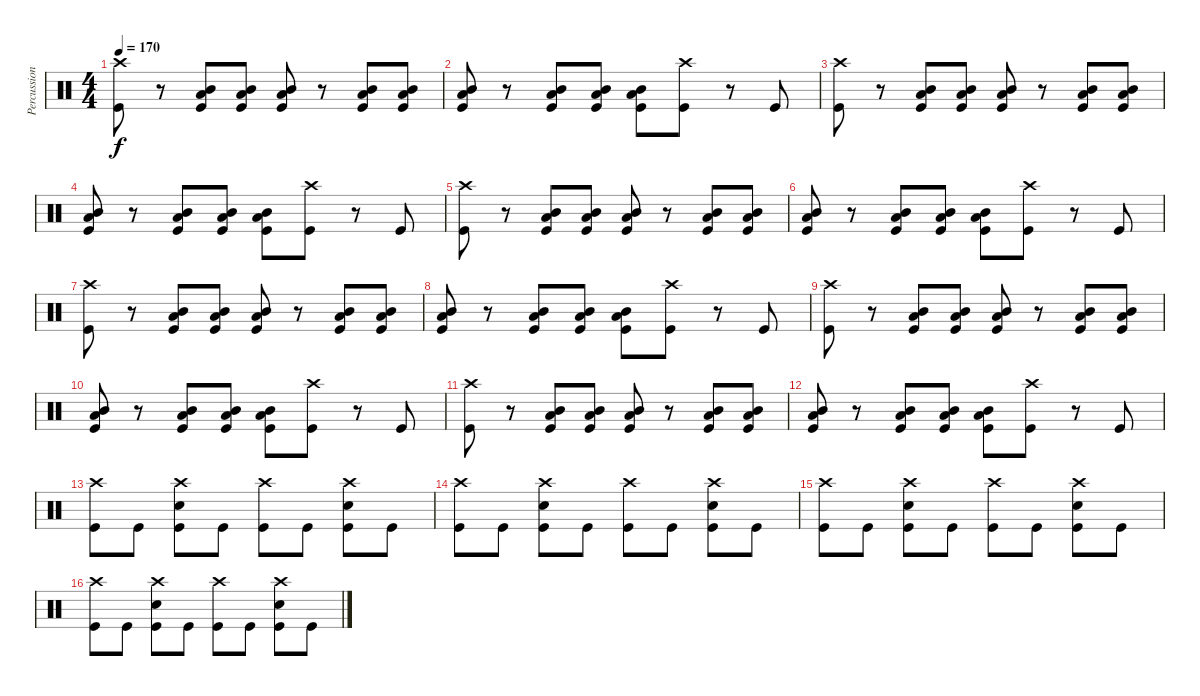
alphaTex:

\track ("Percussion" "Percussion") {instrument percussion}
\staff {score}
\articulation defaults
\ts (4 4)
\tempo 170
\clef neutral
\ks c
("Crash high (hit)" "Kick (hit)").8{dy f} r.8 ("Low Tom (hit)" "Mid Tom (hit)" "Kick (hit)").8 ("Low Tom (hit)" "Mid Tom (hit)" "Kick (hit)").8 ("Low Tom (hit)" "Mid Tom (hit)" "Kick (hit)").8 r.8 ("Low Tom (hit)" "Mid Tom (hit)" "Kick (hit)").8 ("Low Tom (hit)" "Mid Tom (hit)" "Kick (hit)").8 |
("Low Tom (hit)" "Mid Tom (hit)" "Kick (hit)").8 r.8 ("Low Tom (hit)" "Mid Tom (hit)" "Kick (hit)").8 ("Low Tom (hit)" "Mid Tom (hit)" "Kick (hit)").8 ("Low Tom (hit)" "Mid Tom (hit)" "Kick (hit)").8 ("Crash high (hit)" "Kick (hit)").8 r.8 "Kick (hit)".8 |
("Crash high (hit)" "Kick (hit)").8 r.8 ("Low Tom (hit)" "Mid Tom (hit)" "Kick (hit)").8 ("Low Tom (hit)" "Mid Tom (hit)" "Kick (hit)").8 ("Low Tom (hit)" "Mid Tom (hit)" "Kick (hit)").8 r.8 ("Low Tom (hit)" "Mid Tom (hit)" "Kick (hit)").8 ("Low Tom (hit)" "Mid Tom (hit)" "Kick (hit)").8 |
("Low Tom (hit)" "Mid Tom (hit)" "Kick (hit)").8 r.8 ("Low Tom (hit)" "Mid Tom (hit)" "Kick (hit)").8 ("Low Tom (hit)" "Mid Tom (hit)" "Kick (hit)").8 ("Low Tom (hit)" "Mid Tom (hit)" "Kick (hit)").8 ("Crash high (hit)" "Kick (hit)").8 r.8 "Kick (hit)".8 |
("Crash high (hit)" "Kick (hit)").8 r.8 ("Low Tom (hit)" "Mid Tom (hit)" "Kick (hit)").8 ("Low Tom (hit)" "Mid Tom (hit)" "Kick (hit)").8 ("Low Tom (hit)" "Mid Tom (hit)" "Kick (hit)").8 r.8 ("Low Tom (hit)" "Mid Tom (hit)" "Kick (hit)").8 ("Low Tom (hit)" "Mid Tom (hit)" "Kick (hit)").8 |
("Low Tom (hit)" "Mid Tom (hit)" "Kick (hit)").8 r.8 ("Low Tom (hit)" "Mid Tom (hit)" "Kick (hit)").8 ("Low Tom (hit)" "Mid Tom (hit)" "Kick (hit)").8 ("Low Tom (hit)" "Mid Tom (hit)" "Kick (hit)").8 ("Crash high (hit)" "Kick (hit)").8 r.8 "Kick (hit)".8 |
("Crash high (hit)" "Kick (hit)").8 r.8 ("Low Tom (hit)" "Mid Tom (hit)" "Kick (hit)").8 ("Low Tom (hit)" "Mid Tom (hit)" "Kick (hit)").8 ("Low Tom (hit)" "Mid Tom (hit)" "Kick (hit)").8 r.8 ("Low Tom (hit)" "Mid Tom (hit)" "Kick (hit)").8 ("Low Tom (hit)" "Mid Tom (hit)" "Kick (hit)").8 |
("Low Tom (hit)" "Mid Tom (hit)" "Kick (hit)").8 r.8 ("Low Tom (hit)" "Mid Tom (hit)" "Kick (hit)").8 ("Low Tom (hit)" "Mid Tom (hit)" "Kick (hit)").8 ("Low Tom (hit)" "Mid Tom (hit)" "Kick (hit)").8 ("Crash high (hit)" "Kick (hit)").8 r.8 "Kick (hit)".8 |
("Crash high (hit)" "Kick (hit)").8 r.8 ("Low Tom (hit)" "Mid Tom (hit)" "Kick (hit)").8 ("Low Tom (hit)" "Mid Tom (hit)" "Kick (hit)").8 ("Low Tom (hit)" "Mid Tom (hit)" "Kick (hit)").8 r.8 ("Low Tom (hit)" "Mid Tom (hit)" "Kick (hit)").8 ("Low Tom (hit)" "Mid Tom (hit)" "Kick (hit)").8 |
("Low Tom (hit)" "Mid Tom (hit)" "Kick (hit)").8 r.8 ("Low Tom (hit)" "Mid Tom (hit)" "Kick (hit)").8 ("Low Tom (hit)" "Mid Tom (hit)" "Kick (hit)").8 ("Low Tom (hit)" "Mid Tom (hit)" "Kick (hit)").8 ("Crash high (hit)" "Kick (hit)").8 r.8 "Kick (hit)".8 |
("Crash high (hit)" "Kick (hit)").8 r.8 ("Low Tom (hit)" "Mid Tom (hit)" "Kick (hit)").8 ("Low Tom (hit)" "Mid Tom (hit)" "Kick (hit)").8 ("Low Tom (hit)" "Mid Tom (hit)" "Kick (hit)").8 r.8 ("Low Tom (hit)" "Mid Tom (hit)" "Kick (hit)").8 ("Low Tom (hit)" "Mid Tom (hit)" "Kick (hit)").8 |
("Low Tom (hit)" "Mid Tom (hit)" "Kick (hit)").8 r.8 ("Low Tom (hit)" "Mid Tom (hit)" "Kick (hit)").8 ("Low Tom (hit)" "Mid Tom (hit)" "Kick (hit)").8 ("Low Tom (hit)" "Mid Tom (hit)" "Kick (hit)").8 ("Crash high (hit)" "Kick (hit)").8 r.8 "Kick (hit)".8 |
("Crash high (hit)" "Kick (hit)").8 "Kick (hit)".8 ("Snare (hit) 2" "Crash high (hit)" "Kick (hit)").8 "Kick (hit)".8 ("Crash high (hit)" "Kick (hit)").8 "Kick (hit)".8 ("Snare (hit) 2" "Crash high (hit)" "Kick (hit)").8 "Kick (hit)".8 |
("Crash high (hit)" "Kick (hit)").8 "Kick (hit)".8 ("Snare (hit) 2" "Crash high (hit)" "Kick (hit)").8 "Kick (hit)".8 ("Crash high (hit)" "Kick (hit)").8 "Kick (hit)".8 ("Snare (hit) 2" "Crash high (hit)" "Kick (hit)").8 "Kick (hit)".8 |
("Crash high (hit)" "Kick (hit)").8 "Kick (hit)".8 ("Snare (hit) 2" "Crash high (hit)" "Kick (hit)").8 "Kick (hit)".8 ("Crash high (hit)" "Kick (hit)").8 "Kick (hit)".8 ("Snare (hit) 2" "Crash high (hit)" "Kick (hit)").8 "Kick (hit)".8 |
("Crash high (hit)" "Kick (hit)").8 "Kick (hit)".8 ("Snare (hit) 2" "Crash high (hit)" "Kick (hit)").8 "Kick (hit)".8 ("Crash high (hit)" "Kick (hit)").8 "Kick (hit)".8 ("Snare (hit) 2" "Crash high (hit)" "Kick (hit)").8 "Kick (hit)".8
